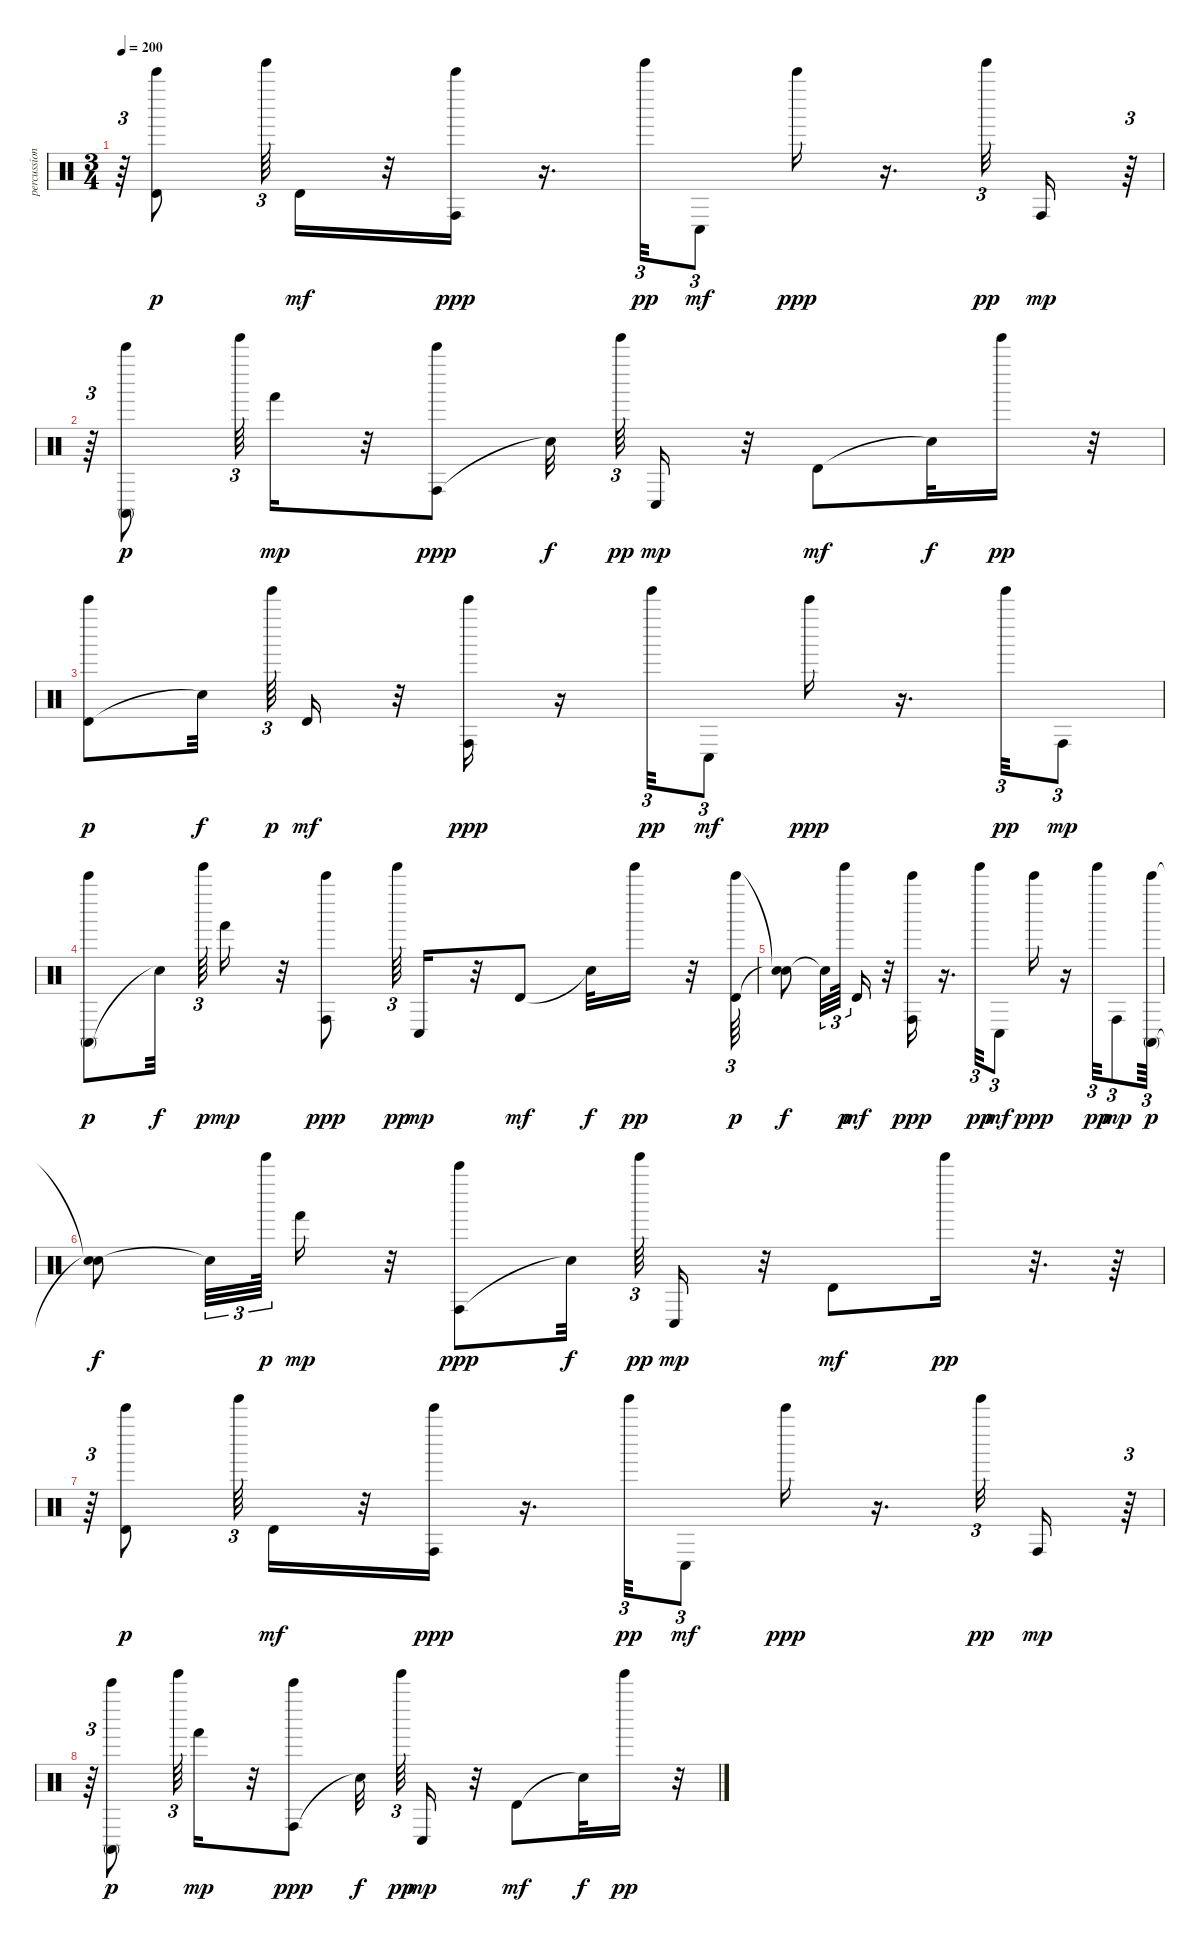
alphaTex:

\track ("percussion" "percussion") {instrument percussion}
\staff {score}
\articulation defaults
\ts (3 4)
\tempo 200
\clef neutral
\ks c
r.64{tu (3 2) dy pp} ("Timbale high (hit)" "Bell Tree (hit)").8{dy p} "Tinkle Bell (hit)".64{tu (3 2)} "Timbale high (hit)".16{dy mf} r.32 ("Conga high (hit)" "Bell Tree (hit)").16{dy ppp} r.16{d} "Tinkle Bell (hit)".32{tu (3 2) dy pp} "Conga low (hit)".8{tu (3 2) dy mf} "Bell Tree (hit)".16{dy ppp} r.16{d} "Tinkle Bell (hit)".32{tu (3 2) dy pp} "Conga high (hit)".16{dy mp} r.64{tu (3 2)} |
r.64{tu (3 2)} ("Conga high (mute)" "Bell Tree (hit)").8{dy p} "Tinkle Bell (hit)".64{tu (3 2)} "Hand (hit)".16{dy mp} r.32 ("Conga high (hit)" "Bell Tree (hit)").8{dy ppp} "Snare (hit)"{t}.32{dy f} "Tinkle Bell (hit)".64{tu (3 2) dy pp} "Conga low (hit)".16{dy mp} r.32 "Timbale high (hit)".8{dy mf} "Snare (hit)"{t}.32{dy f} "Tinkle Bell (hit)".16{dy pp} r.32 |
("Timbale high (hit)" "Bell Tree (hit)").8{dy p} "Snare (hit)"{t}.32{dy f} "Tinkle Bell (hit)".64{tu (3 2) dy p} "Timbale high (hit)".16{dy mf} r.32 ("Conga high (hit)" "Bell Tree (hit)").16{dy ppp} r.16 "Tinkle Bell (hit)".32{tu (3 2) dy pp} "Conga low (hit)".8{tu (3 2) dy mf} "Bell Tree (hit)".16{dy ppp} r.16{d} "Tinkle Bell (hit)".32{tu (3 2) dy pp} "Conga high (hit)".8{tu (3 2) dy mp} |
("Conga high (mute)" "Bell Tree (hit)").8{dy p} "Snare (hit)"{t}.32{dy f} "Tinkle Bell (hit)".64{tu (3 2) dy p} "Hand (hit)".16{dy mp} r.32 ("Conga high (hit)" "Bell Tree (hit)").8{dy ppp} "Tinkle Bell (hit)".64{tu (3 2) dy pp} "Conga low (hit)".16{dy mp} r.32 "Timbale high (hit)".8{dy mf} "Snare (hit)"{t}.32{dy f} "Tinkle Bell (hit)".16{dy pp} r.32 ("Timbale high (hit)" "Bell Tree (hit)").64{tu (3 2) dy p} |
("Snare (hit)"{t} "Snare (hit)"{t}).8{dy f} "Snare (hit)"{t}.32{tu (3 2)} "Tinkle Bell (hit)".64{tu (3 2) dy p} "Timbale high (hit)".16{dy mf} r.32 ("Conga high (hit)" "Bell Tree (hit)").16{dy ppp} r.16{d} "Tinkle Bell (hit)".32{tu (3 2) dy pp} "Conga low (hit)".8{tu (3 2) dy mf} "Bell Tree (hit)".16{dy ppp} r.16 "Tinkle Bell (hit)".32{tu (3 2) dy pp} "Conga high (hit)".8{tu (3 2) dy mp} ("Conga high (mute)" "Bell Tree (hit)").64{tu (3 2) dy p} |
("Snare (hit)"{t} "Snare (hit)"{t}).8{dy f} "Snare (hit)"{t}.32{tu (3 2)} "Tinkle Bell (hit)".64{tu (3 2) dy p} "Hand (hit)".16{dy mp} r.32 ("Conga high (hit)" "Bell Tree (hit)").8{dy ppp} "Snare (hit)"{t}.32{dy f} "Tinkle Bell (hit)".64{tu (3 2) dy pp} "Conga low (hit)".16{dy mp} r.32 "Timbale high (hit)".8{dy mf} "Tinkle Bell (hit)".16{dy pp} r.32{d} r.64 |
r.64{tu (3 2)} ("Timbale high (hit)" "Bell Tree (hit)").8{dy p} "Tinkle Bell (hit)".64{tu (3 2)} "Timbale high (hit)".16{dy mf} r.32 ("Conga high (hit)" "Bell Tree (hit)").16{dy ppp} r.16{d} "Tinkle Bell (hit)".32{tu (3 2) dy pp} "Conga low (hit)".8{tu (3 2) dy mf} "Bell Tree (hit)".16{dy ppp} r.16{d} "Tinkle Bell (hit)".32{tu (3 2) dy pp} "Conga high (hit)".16{dy mp} r.64{tu (3 2)} |
r.64{tu (3 2)} ("Conga high (mute)" "Bell Tree (hit)").8{dy p} "Tinkle Bell (hit)".64{tu (3 2)} "Hand (hit)".16{dy mp} r.32 ("Conga high (hit)" "Bell Tree (hit)").8{dy ppp} "Snare (hit)"{t}.32{dy f} "Tinkle Bell (hit)".64{tu (3 2) dy pp} "Conga low (hit)".16{dy mp} r.32 "Timbale high (hit)".8{dy mf} "Snare (hit)"{t}.32{dy f} "Tinkle Bell (hit)".16{dy pp} r.32
